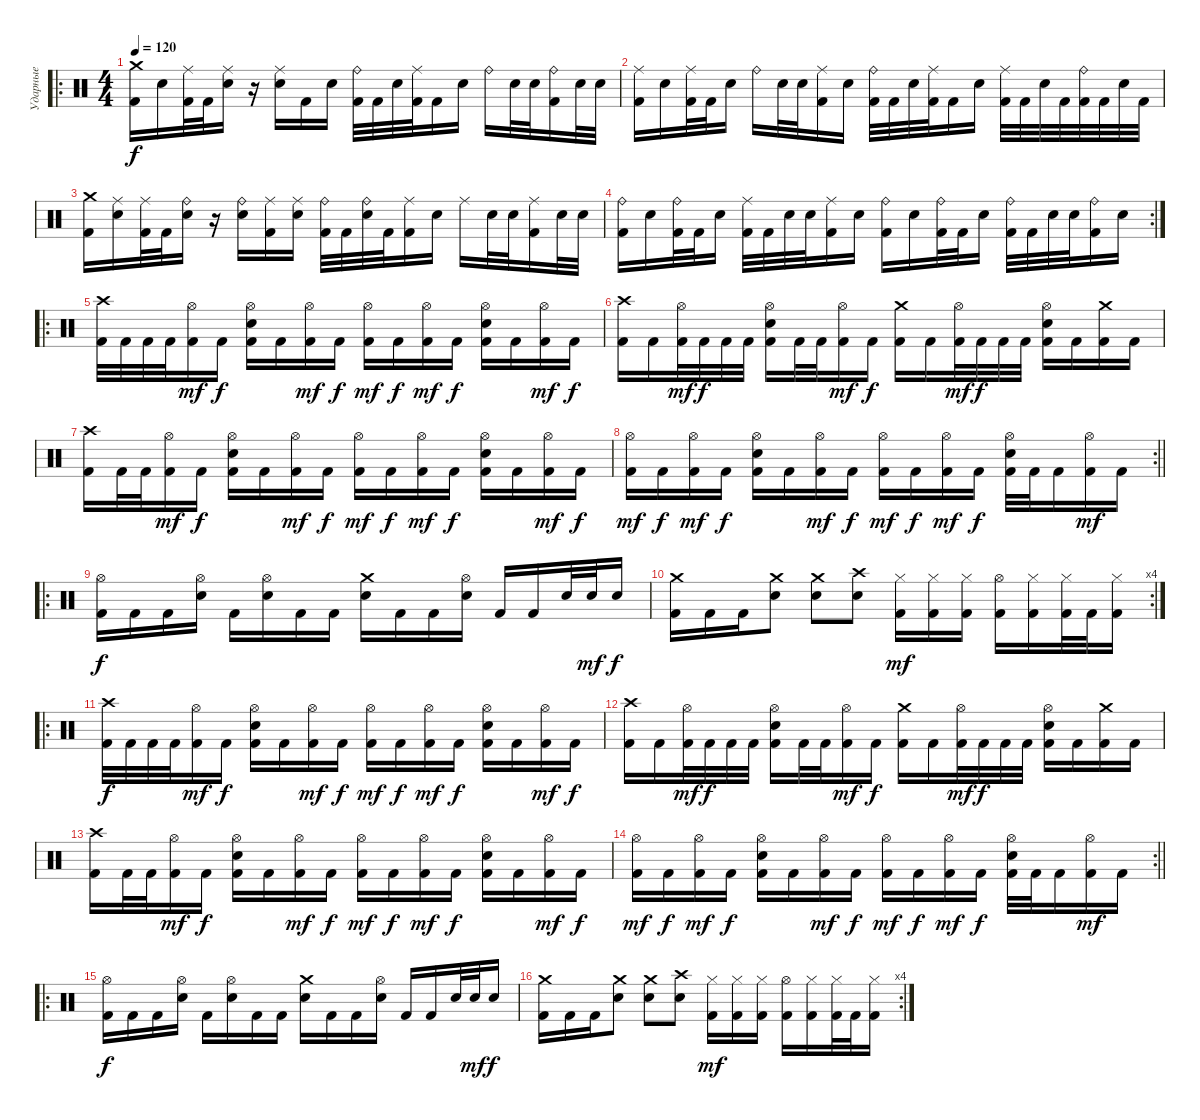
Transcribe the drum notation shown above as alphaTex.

\track ("Ударные" "Ударные") {instrument percussion}
\staff {score}
\articulation defaults
\ro
\ts (4 4)
\tempo 120
\clef neutral
\ks c
("Crash medium (hit)" "Kick (hit) 2").16{dy f} "Electric Snare (hit)".16 ("Ride (middle)" "Kick (hit) 2").32 "Kick (hit) 2".32 ("Ride (middle)" "Electric Snare (hit)").16 r.16 ("Ride (middle)" "Electric Snare (hit)").16 "Kick (hit) 2".16 "Electric Snare (hit)".16 ("Ride (bell)" "Kick (hit) 2").32 "Kick (hit) 2".32 "Electric Snare (hit)".32 ("Ride (middle)" "Kick (hit) 2").32 "Kick (hit) 2".16 "Electric Snare (hit)".16 "Ride (bell)".16 "Electric Snare (hit)".32 "Electric Snare (hit)".32 ("Ride (bell)" "Kick (hit) 2").16 "Electric Snare (hit)".32 "Electric Snare (hit)".32 |
("Ride (middle)" "Kick (hit) 2").16 "Electric Snare (hit)".16 ("Ride (middle)" "Kick (hit) 2").32 "Kick (hit) 2".32 "Electric Snare (hit)".16 "Ride (bell)".16 "Electric Snare (hit)".32 "Electric Snare (hit)".32 ("Ride (middle)" "Kick (hit) 2").16 "Electric Snare (hit)".16 ("Ride (bell)" "Kick (hit) 2").32 "Kick (hit) 2".32 "Electric Snare (hit)".32 ("Ride (middle)" "Kick (hit) 2").32 "Kick (hit) 2".16 "Electric Snare (hit)".16 ("Ride (middle)" "Kick (hit) 2").32 "Kick (hit) 2".32 "Electric Snare (hit)".32 "Kick (hit) 2".32 ("Ride (bell)" "Kick (hit) 2").32 "Kick (hit) 2".32 "Electric Snare (hit)".32 "Kick (hit) 2".32 |
("Crash medium (hit)" "Kick (hit) 2").16 ("Ride (middle)" "Electric Snare (hit)").16 ("Ride (middle)" "Kick (hit) 2").32 "Kick (hit) 2".32 ("Ride (bell)" "Electric Snare (hit)").16 r.16 ("Ride (bell)" "Electric Snare (hit)").16 ("Ride (middle)" "Kick (hit) 2").16 ("Ride (middle)" "Electric Snare (hit)").16 ("Ride (bell)" "Kick (hit) 2").32 "Kick (hit) 2".32 ("Ride (bell)" "Electric Snare (hit)").32 "Kick (hit) 2".32 ("Ride (middle)" "Kick (hit) 2").16 "Electric Snare (hit)".16 "Ride (middle)".16 "Electric Snare (hit)".32 "Electric Snare (hit)".32 ("Ride (middle)" "Kick (hit) 2").16 "Electric Snare (hit)".32 "Electric Snare (hit)".32 |
\rc 2
("Ride (bell)" "Kick (hit) 2").16 "Electric Snare (hit)".16 ("Ride (bell)" "Kick (hit) 2").32 "Kick (hit) 2".32 "Electric Snare (hit)".16 ("Ride (middle)" "Kick (hit) 2").32 "Kick (hit) 2".32 "Electric Snare (hit)".32 "Electric Snare (hit)".32 ("Ride (middle)" "Kick (hit) 2").16 "Electric Snare (hit)".16 ("Ride (bell)" "Kick (hit) 2").16 "Electric Snare (hit)".16 ("Ride (bell)" "Kick (hit) 2").32 "Kick (hit) 2".32 "Electric Snare (hit)".16 ("Ride (bell)" "Kick (hit) 2").32 "Kick (hit) 2".32 "Electric Snare (hit)".32 "Electric Snare (hit)".32 ("Ride (bell)" "Kick (hit) 2").16 "Electric Snare (hit)".16 |
\ro
("Crash high (hit)" "Kick (hit) 2").32 "Kick (hit) 2".32 "Kick (hit) 2".32 "Kick (hit) 2".32 ("Hi-Hat (open)" "Kick (hit) 2").16{dy mf} "Kick (hit) 2".16{dy f} ("Hi-Hat (open)" "Electric Snare (hit)" "Kick (hit) 2").16 "Kick (hit) 2".16 ("Hi-Hat (open)" "Kick (hit) 2").16{dy mf} "Kick (hit) 2".16{dy f} ("Hi-Hat (open)" "Kick (hit) 2").16{dy mf} "Kick (hit) 2".16{dy f} ("Hi-Hat (open)" "Kick (hit) 2").16{dy mf} "Kick (hit) 2".16{dy f} ("Hi-Hat (open)" "Electric Snare (hit)" "Kick (hit) 2").16 "Kick (hit) 2".16 ("Hi-Hat (open)" "Kick (hit) 2").16{dy mf} "Kick (hit) 2".16{dy f} |
("Crash high (hit)" "Kick (hit) 2").16 "Kick (hit) 2".16 ("Hi-Hat (open)" "Kick (hit) 2").32{dy mf} "Kick (hit) 2".32{dy f} "Kick (hit) 2".32 "Kick (hit) 2".32 ("Hi-Hat (open)" "Electric Snare (hit)" "Kick (hit) 2").16 "Kick (hit) 2".32 "Kick (hit) 2".32 ("Hi-Hat (open)" "Kick (hit) 2").16{dy mf} "Kick (hit) 2".16{dy f} ("Crash medium (hit)" "Kick (hit) 2").16 "Kick (hit) 2".16 ("Hi-Hat (open)" "Kick (hit) 2").32{dy mf} "Kick (hit) 2".32{dy f} "Kick (hit) 2".32 "Kick (hit) 2".32 ("Hi-Hat (open)" "Electric Snare (hit)" "Kick (hit) 2").16 "Kick (hit) 2".16 ("Crash medium (hit)" "Kick (hit) 2").16 "Kick (hit) 2".16 |
("Crash high (hit)" "Kick (hit) 2").16 "Kick (hit) 2".32 "Kick (hit) 2".32 ("Hi-Hat (open)" "Kick (hit) 2").16{dy mf} "Kick (hit) 2".16{dy f} ("Hi-Hat (open)" "Electric Snare (hit)" "Kick (hit) 2").16 "Kick (hit) 2".16 ("Hi-Hat (open)" "Kick (hit) 2").16{dy mf} "Kick (hit) 2".16{dy f} ("Hi-Hat (open)" "Kick (hit) 2").16{dy mf} "Kick (hit) 2".16{dy f} ("Hi-Hat (open)" "Kick (hit) 2").16{dy mf} "Kick (hit) 2".16{dy f} ("Hi-Hat (open)" "Electric Snare (hit)" "Kick (hit) 2").16 "Kick (hit) 2".16 ("Hi-Hat (open)" "Kick (hit) 2").16{dy mf} "Kick (hit) 2".16{dy f} |
\rc 2
\barLineRight lightlight
("Hi-Hat (open)" "Kick (hit) 2").16{dy mf} "Kick (hit) 2".16{dy f} ("Hi-Hat (open)" "Kick (hit) 2").16{dy mf} "Kick (hit) 2".16{dy f} ("Hi-Hat (open)" "Electric Snare (hit)" "Kick (hit) 2").16 "Kick (hit) 2".16 ("Hi-Hat (open)" "Kick (hit) 2").16{dy mf} "Kick (hit) 2".16{dy f} ("Hi-Hat (open)" "Kick (hit) 2").16{dy mf} "Kick (hit) 2".16{dy f} ("Hi-Hat (open)" "Kick (hit) 2").16{dy mf} "Kick (hit) 2".16{dy f} ("Hi-Hat (open)" "Electric Snare (hit)" "Kick (hit) 2").32 "Kick (hit) 2".32 "Kick (hit) 2".16 ("Hi-Hat (open)" "Kick (hit) 2").16{dy mf} "Kick (hit) 2".16 |
\ro
("Hi-Hat (open)" "Kick (hit) 2").16{dy f} "Kick (hit) 2".16 "Kick (hit) 2".16 ("Hi-Hat (open)" "Electric Snare (hit)").16 "Kick (hit) 2".16 ("Hi-Hat (open)" "Electric Snare (hit)").16 "Kick (hit) 2".16 "Kick (hit) 2".16 ("Crash medium (hit)" "Electric Snare (hit)").16 "Kick (hit) 2".16 "Kick (hit) 2".16 ("Hi-Hat (open)" "Electric Snare (hit)").16 "Kick (hit) 2".16 "Kick (hit) 2".16 "Electric Snare (hit)".32 "Electric Snare (hit)".32{dy mf} "Electric Snare (hit)".16{dy f} |
\rc 4
("Crash medium (hit)" "Kick (hit) 2").16 "Kick (hit) 2".16 "Kick (hit) 2".16 ("Crash medium (hit)" "Electric Snare (hit)").8 ("Crash medium (hit)" "Electric Snare (hit)").8 ("Crash high (hit)" "Electric Snare (hit)").8 ("Hi-Hat (closed)" "Kick (hit) 2").16{dy mf} ("Hi-Hat (closed)" "Kick (hit) 2").16 ("Hi-Hat (closed)" "Kick (hit) 2").16 ("Hi-Hat (open)" "Kick (hit) 2").16 ("Hi-Hat (closed)" "Kick (hit) 2").16 ("Hi-Hat (closed)" "Kick (hit) 2").32 "Kick (hit) 2".32 ("Hi-Hat (closed)" "Kick (hit) 2").16 |
\ro
("Crash high (hit)" "Kick (hit) 2").32{dy f} "Kick (hit) 2".32 "Kick (hit) 2".32 "Kick (hit) 2".32 ("Hi-Hat (open)" "Kick (hit) 2").16{dy mf} "Kick (hit) 2".16{dy f} ("Hi-Hat (open)" "Electric Snare (hit)" "Kick (hit) 2").16 "Kick (hit) 2".16 ("Hi-Hat (open)" "Kick (hit) 2").16{dy mf} "Kick (hit) 2".16{dy f} ("Hi-Hat (open)" "Kick (hit) 2").16{dy mf} "Kick (hit) 2".16{dy f} ("Hi-Hat (open)" "Kick (hit) 2").16{dy mf} "Kick (hit) 2".16{dy f} ("Hi-Hat (open)" "Electric Snare (hit)" "Kick (hit) 2").16 "Kick (hit) 2".16 ("Hi-Hat (open)" "Kick (hit) 2").16{dy mf} "Kick (hit) 2".16{dy f} |
("Crash high (hit)" "Kick (hit) 2").16 "Kick (hit) 2".16 ("Hi-Hat (open)" "Kick (hit) 2").32{dy mf} "Kick (hit) 2".32{dy f} "Kick (hit) 2".32 "Kick (hit) 2".32 ("Hi-Hat (open)" "Electric Snare (hit)" "Kick (hit) 2").16 "Kick (hit) 2".32 "Kick (hit) 2".32 ("Hi-Hat (open)" "Kick (hit) 2").16{dy mf} "Kick (hit) 2".16{dy f} ("Crash medium (hit)" "Kick (hit) 2").16 "Kick (hit) 2".16 ("Hi-Hat (open)" "Kick (hit) 2").32{dy mf} "Kick (hit) 2".32{dy f} "Kick (hit) 2".32 "Kick (hit) 2".32 ("Hi-Hat (open)" "Electric Snare (hit)" "Kick (hit) 2").16 "Kick (hit) 2".16 ("Crash medium (hit)" "Kick (hit) 2").16 "Kick (hit) 2".16 |
("Crash high (hit)" "Kick (hit) 2").16 "Kick (hit) 2".32 "Kick (hit) 2".32 ("Hi-Hat (open)" "Kick (hit) 2").16{dy mf} "Kick (hit) 2".16{dy f} ("Hi-Hat (open)" "Electric Snare (hit)" "Kick (hit) 2").16 "Kick (hit) 2".16 ("Hi-Hat (open)" "Kick (hit) 2").16{dy mf} "Kick (hit) 2".16{dy f} ("Hi-Hat (open)" "Kick (hit) 2").16{dy mf} "Kick (hit) 2".16{dy f} ("Hi-Hat (open)" "Kick (hit) 2").16{dy mf} "Kick (hit) 2".16{dy f} ("Hi-Hat (open)" "Electric Snare (hit)" "Kick (hit) 2").16 "Kick (hit) 2".16 ("Hi-Hat (open)" "Kick (hit) 2").16{dy mf} "Kick (hit) 2".16{dy f} |
\rc 2
\barLineRight lightlight
("Hi-Hat (open)" "Kick (hit) 2").16{dy mf} "Kick (hit) 2".16{dy f} ("Hi-Hat (open)" "Kick (hit) 2").16{dy mf} "Kick (hit) 2".16{dy f} ("Hi-Hat (open)" "Electric Snare (hit)" "Kick (hit) 2").16 "Kick (hit) 2".16 ("Hi-Hat (open)" "Kick (hit) 2").16{dy mf} "Kick (hit) 2".16{dy f} ("Hi-Hat (open)" "Kick (hit) 2").16{dy mf} "Kick (hit) 2".16{dy f} ("Hi-Hat (open)" "Kick (hit) 2").16{dy mf} "Kick (hit) 2".16{dy f} ("Hi-Hat (open)" "Electric Snare (hit)" "Kick (hit) 2").32 "Kick (hit) 2".32 "Kick (hit) 2".16 ("Hi-Hat (open)" "Kick (hit) 2").16{dy mf} "Kick (hit) 2".16 |
\ro
("Hi-Hat (open)" "Kick (hit) 2").16{dy f} "Kick (hit) 2".16 "Kick (hit) 2".16 ("Hi-Hat (open)" "Electric Snare (hit)").16 "Kick (hit) 2".16 ("Hi-Hat (open)" "Electric Snare (hit)").16 "Kick (hit) 2".16 "Kick (hit) 2".16 ("Crash medium (hit)" "Electric Snare (hit)").16 "Kick (hit) 2".16 "Kick (hit) 2".16 ("Hi-Hat (open)" "Electric Snare (hit)").16 "Kick (hit) 2".16 "Kick (hit) 2".16 "Electric Snare (hit)".32 "Electric Snare (hit)".32{dy mf} "Electric Snare (hit)".16{dy f} |
\rc 4
("Crash medium (hit)" "Kick (hit) 2").16 "Kick (hit) 2".16 "Kick (hit) 2".16 ("Crash medium (hit)" "Electric Snare (hit)").8 ("Crash medium (hit)" "Electric Snare (hit)").8 ("Crash high (hit)" "Electric Snare (hit)").8 ("Hi-Hat (closed)" "Kick (hit) 2").16{dy mf} ("Hi-Hat (closed)" "Kick (hit) 2").16 ("Hi-Hat (closed)" "Kick (hit) 2").16 ("Hi-Hat (open)" "Kick (hit) 2").16 ("Hi-Hat (closed)" "Kick (hit) 2").16 ("Hi-Hat (closed)" "Kick (hit) 2").32 "Kick (hit) 2".32 ("Hi-Hat (closed)" "Kick (hit) 2").16
